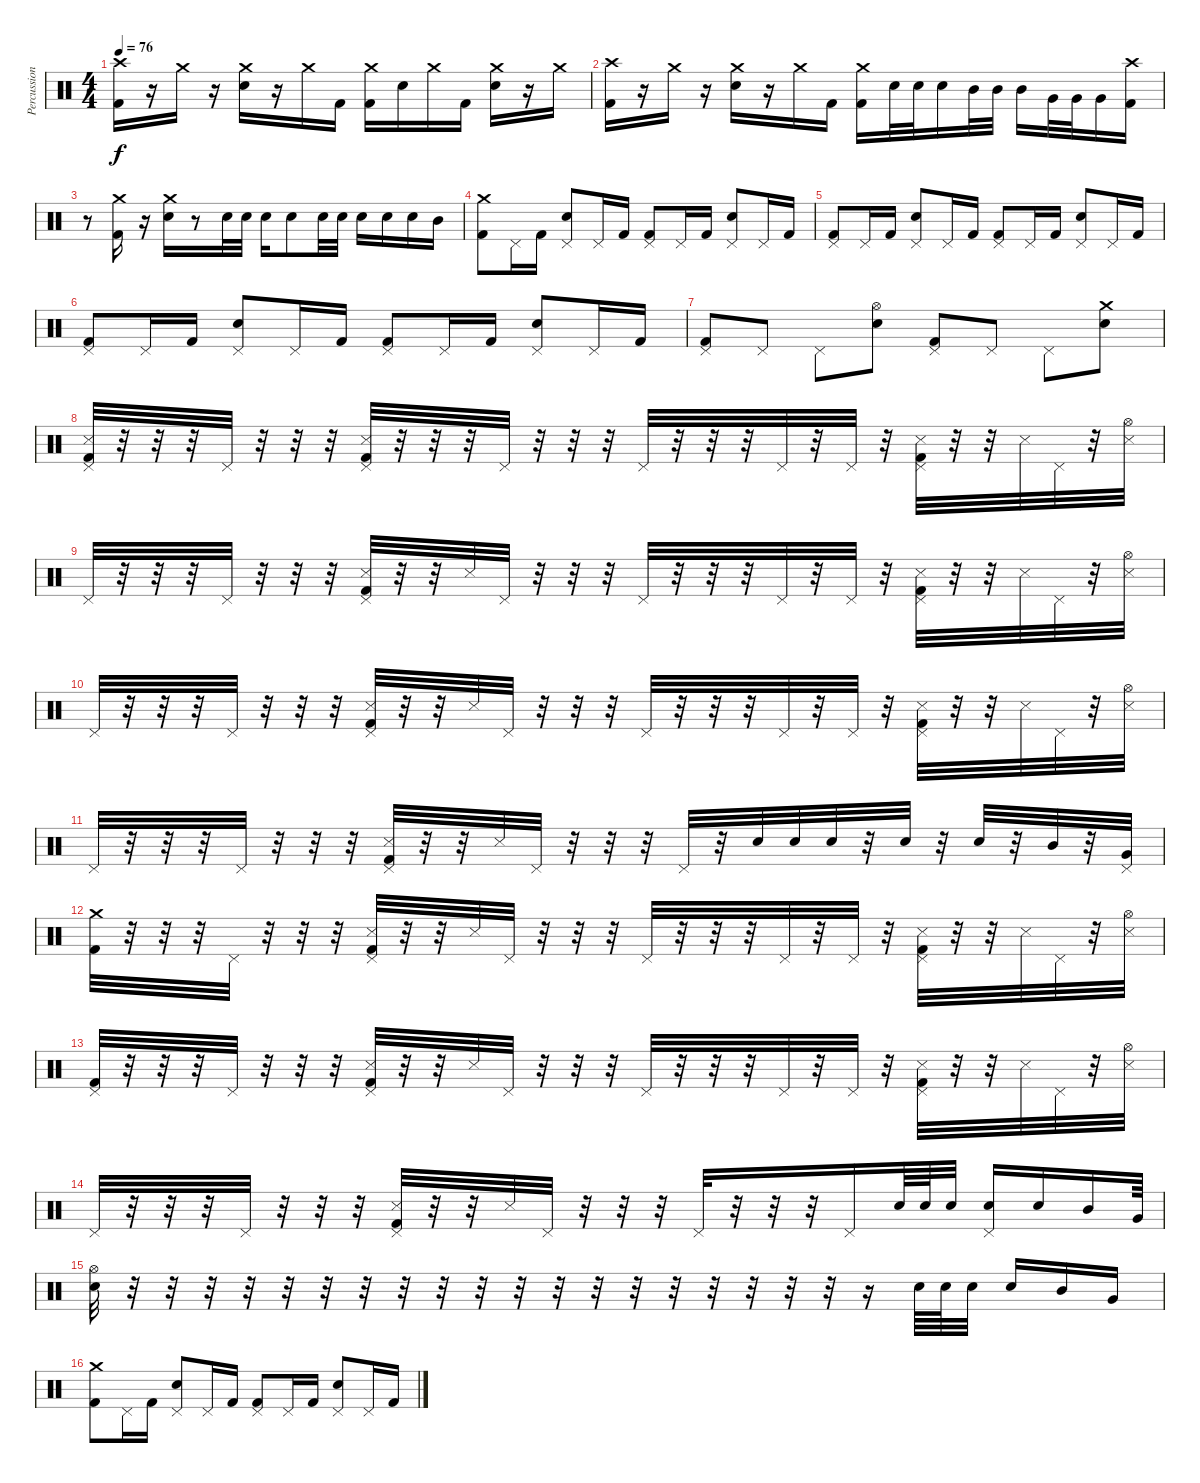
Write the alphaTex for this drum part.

\track ("Percussion" "Percussion") {instrument percussion}
\staff {score}
\articulation defaults
\ts (4 4)
\tempo 76
\clef neutral
\ks c
("Crash high (hit)" "Kick (hit) 2").16{dy f} r.16 "Crash medium (hit)".16 r.16 ("Crash medium (hit)" "Electric Snare (hit)").16 r.16 "Crash medium (hit)".16 "Kick (hit) 2".16 ("Crash medium (hit)" "Kick (hit) 2").16 "Electric Snare (hit)".16 "Crash medium (hit)".16 "Kick (hit) 2".16 ("Crash medium (hit)" "Electric Snare (hit)").16 r.16 "Crash medium (hit)".16 |
("Crash high (hit)" "Kick (hit) 2").16 r.16 "Crash medium (hit)".16 r.16 ("Crash medium (hit)" "Electric Snare (hit)").16 r.16 "Crash medium (hit)".16 "Kick (hit) 2".16 ("Crash medium (hit)" "Kick (hit) 2").16 "Electric Snare (hit)".32 "Electric Snare (hit)".32 "Electric Snare (hit)".16 "Mid Tom (hit)".32 "Mid Tom (hit)".32 "Mid Tom (hit)".16 "Very Low Tom (hit)".32 "Very Low Tom (hit)".32 "Very Low Tom (hit)".16 ("Crash high (hit)" "Kick (hit) 2").16 |
r.8 ("Crash medium (hit)" "Kick (hit) 2").16 r.16 ("Crash medium (hit)" "Electric Snare (hit)").16 r.8 "Electric Snare (hit)".32 "Electric Snare (hit)".32 "Electric Snare (hit)".16 "Electric Snare (hit)".8 "Electric Snare (hit)".32 "Electric Snare (hit)".32 "Electric Snare (hit)".16 "Electric Snare (hit)".16 "Electric Snare (hit)".16 "Mid Tom (hit)".16 |
("Crash medium (hit)" "Kick (hit) 2").8 "Pedal Hi-Hat (hit)".16 "Kick (hit) 2".16 ("Pedal Hi-Hat (hit)" "Electric Snare (hit)").8 "Pedal Hi-Hat (hit)".16 "Kick (hit) 2".16 ("Pedal Hi-Hat (hit)" "Kick (hit) 2").8 "Pedal Hi-Hat (hit)".16 "Kick (hit) 2".16 ("Pedal Hi-Hat (hit)" "Electric Snare (hit)").8 "Pedal Hi-Hat (hit)".16 "Kick (hit) 2".16 |
("Pedal Hi-Hat (hit)" "Kick (hit) 2").8 "Pedal Hi-Hat (hit)".16 "Kick (hit) 2".16 ("Pedal Hi-Hat (hit)" "Electric Snare (hit)").8 "Pedal Hi-Hat (hit)".16 "Kick (hit) 2".16 ("Pedal Hi-Hat (hit)" "Kick (hit) 2").8 "Pedal Hi-Hat (hit)".16 "Kick (hit) 2".16 ("Pedal Hi-Hat (hit)" "Electric Snare (hit)").8 "Pedal Hi-Hat (hit)".16 "Kick (hit) 2".16 |
("Pedal Hi-Hat (hit)" "Kick (hit) 2").8 "Pedal Hi-Hat (hit)".16 "Kick (hit) 2".16 ("Pedal Hi-Hat (hit)" "Electric Snare (hit)").8 "Pedal Hi-Hat (hit)".16 "Kick (hit) 2".16 ("Pedal Hi-Hat (hit)" "Kick (hit) 2").8 "Pedal Hi-Hat (hit)".16 "Kick (hit) 2".16 ("Pedal Hi-Hat (hit)" "Electric Snare (hit)").8 "Pedal Hi-Hat (hit)".16 "Kick (hit) 2".16 |
("Pedal Hi-Hat (hit)" "Kick (hit) 2").8 "Pedal Hi-Hat (hit)".8 "Pedal Hi-Hat (hit)".8 ("Hi-Hat (open)" "Electric Snare (hit)").8 ("Pedal Hi-Hat (hit)" "Kick (hit) 2").8 "Pedal Hi-Hat (hit)".8 "Pedal Hi-Hat (hit)".8 ("Crash medium (hit)" "Electric Snare (hit)").8 |
("Pedal Hi-Hat (hit)" "Metronome (hit)" "Kick (hit) 2").32 r.32 r.32 r.32 "Pedal Hi-Hat (hit)".32 r.32 r.32 r.32 ("Pedal Hi-Hat (hit)" "Metronome (hit)" "Kick (hit) 2").32 r.32 r.32 r.32 "Pedal Hi-Hat (hit)".32 r.32 r.32 r.32 "Pedal Hi-Hat (hit)".32 r.32 r.32 r.32 "Pedal Hi-Hat (hit)".32 r.32 "Pedal Hi-Hat (hit)".32 r.32 ("Pedal Hi-Hat (hit)" "Metronome (hit)" "Kick (hit) 2").32 r.32 r.32 "Metronome (hit)".32 "Pedal Hi-Hat (hit)".32 r.32 ("Hi-Hat (open)" "Metronome (hit)").32 |
"Pedal Hi-Hat (hit)".32 r.32 r.32 r.32 "Pedal Hi-Hat (hit)".32 r.32 r.32 r.32 ("Pedal Hi-Hat (hit)" "Metronome (hit)" "Kick (hit) 2").32 r.32 r.32 "Metronome (hit)".32 "Pedal Hi-Hat (hit)".32 r.32 r.32 r.32 "Pedal Hi-Hat (hit)".32 r.32 r.32 r.32 "Pedal Hi-Hat (hit)".32 r.32 "Pedal Hi-Hat (hit)".32 r.32 ("Pedal Hi-Hat (hit)" "Metronome (hit)" "Kick (hit) 2").32 r.32 r.32 "Metronome (hit)".32 "Pedal Hi-Hat (hit)".32 r.32 ("Hi-Hat (open)" "Metronome (hit)").32 |
"Pedal Hi-Hat (hit)".32 r.32 r.32 r.32 "Pedal Hi-Hat (hit)".32 r.32 r.32 r.32 ("Pedal Hi-Hat (hit)" "Metronome (hit)" "Kick (hit) 2").32 r.32 r.32 "Metronome (hit)".32 "Pedal Hi-Hat (hit)".32 r.32 r.32 r.32 "Pedal Hi-Hat (hit)".32 r.32 r.32 r.32 "Pedal Hi-Hat (hit)".32 r.32 "Pedal Hi-Hat (hit)".32 r.32 ("Pedal Hi-Hat (hit)" "Metronome (hit)" "Kick (hit) 2").32 r.32 r.32 "Metronome (hit)".32 "Pedal Hi-Hat (hit)".32 r.32 ("Hi-Hat (open)" "Metronome (hit)").32 |
"Pedal Hi-Hat (hit)".32 r.32 r.32 r.32 "Pedal Hi-Hat (hit)".32 r.32 r.32 r.32 ("Pedal Hi-Hat (hit)" "Metronome (hit)" "Kick (hit) 2").32 r.32 r.32 "Metronome (hit)".32 "Pedal Hi-Hat (hit)".32 r.32 r.32 r.32 "Pedal Hi-Hat (hit)".32 r.32 "Electric Snare (hit)".32 "Electric Snare (hit)".32 "Electric Snare (hit)".32 r.32 "Electric Snare (hit)".32 r.32 "Electric Snare (hit)".32 r.32 "Mid Tom (hit)".32 r.32 ("Pedal Hi-Hat (hit)" "Very Low Tom (hit)").32 |
("Crash medium (hit)" "Kick (hit) 2").32 r.32 r.32 r.32 "Pedal Hi-Hat (hit)".32 r.32 r.32 r.32 ("Pedal Hi-Hat (hit)" "Metronome (hit)" "Kick (hit) 2").32 r.32 r.32 "Metronome (hit)".32 "Pedal Hi-Hat (hit)".32 r.32 r.32 r.32 "Pedal Hi-Hat (hit)".32 r.32 r.32 r.32 "Pedal Hi-Hat (hit)".32 r.32 "Pedal Hi-Hat (hit)".32 r.32 ("Pedal Hi-Hat (hit)" "Metronome (hit)" "Kick (hit) 2").32 r.32 r.32 "Metronome (hit)".32 "Pedal Hi-Hat (hit)".32 r.32 ("Hi-Hat (open)" "Metronome (hit)").32 |
("Pedal Hi-Hat (hit)" "Kick (hit) 2").32 r.32 r.32 r.32 "Pedal Hi-Hat (hit)".32 r.32 r.32 r.32 ("Pedal Hi-Hat (hit)" "Metronome (hit)" "Kick (hit) 2").32 r.32 r.32 "Metronome (hit)".32 "Pedal Hi-Hat (hit)".32 r.32 r.32 r.32 "Pedal Hi-Hat (hit)".32 r.32 r.32 r.32 "Pedal Hi-Hat (hit)".32 r.32 "Pedal Hi-Hat (hit)".32 r.32 ("Pedal Hi-Hat (hit)" "Metronome (hit)" "Kick (hit) 2").32 r.32 r.32 "Metronome (hit)".32 "Pedal Hi-Hat (hit)".32 r.32 ("Hi-Hat (open)" "Metronome (hit)").32 |
"Pedal Hi-Hat (hit)".32 r.32 r.32 r.32 "Pedal Hi-Hat (hit)".32 r.32 r.32 r.32 ("Pedal Hi-Hat (hit)" "Metronome (hit)" "Kick (hit) 2").32 r.32 r.32 "Metronome (hit)".32 "Pedal Hi-Hat (hit)".32 r.32 r.32 r.32 "Pedal Hi-Hat (hit)".32 r.32 r.32 r.32 "Pedal Hi-Hat (hit)".16 "Electric Snare (hit)".64 "Electric Snare (hit)".64 "Electric Snare (hit)".32 ("Pedal Hi-Hat (hit)" "Electric Snare (hit)").16 "Electric Snare (hit)".16 "Mid Tom (hit)".16 "Very Low Tom (hit)".64 |
("Hi-Hat (open)" "Electric Snare (hit)").32 r.32 r.32 r.32 r.32 r.32 r.32 r.32 r.32 r.32 r.32 r.32 r.32 r.32 r.32 r.32 r.32 r.32 r.32 r.32 r.16 "Electric Snare (hit)".64 "Electric Snare (hit)".64 "Electric Snare (hit)".32 "Electric Snare (hit)".16 "Mid Tom (hit)".16 "Very Low Tom (hit)".16 |
("Crash medium (hit)" "Kick (hit) 2").8 "Pedal Hi-Hat (hit)".16 "Kick (hit) 2".16 ("Pedal Hi-Hat (hit)" "Electric Snare (hit)").8 "Pedal Hi-Hat (hit)".16 "Kick (hit) 2".16 ("Pedal Hi-Hat (hit)" "Kick (hit) 2").8 "Pedal Hi-Hat (hit)".16 "Kick (hit) 2".16 ("Pedal Hi-Hat (hit)" "Electric Snare (hit)").8 "Pedal Hi-Hat (hit)".16 "Kick (hit) 2".16
